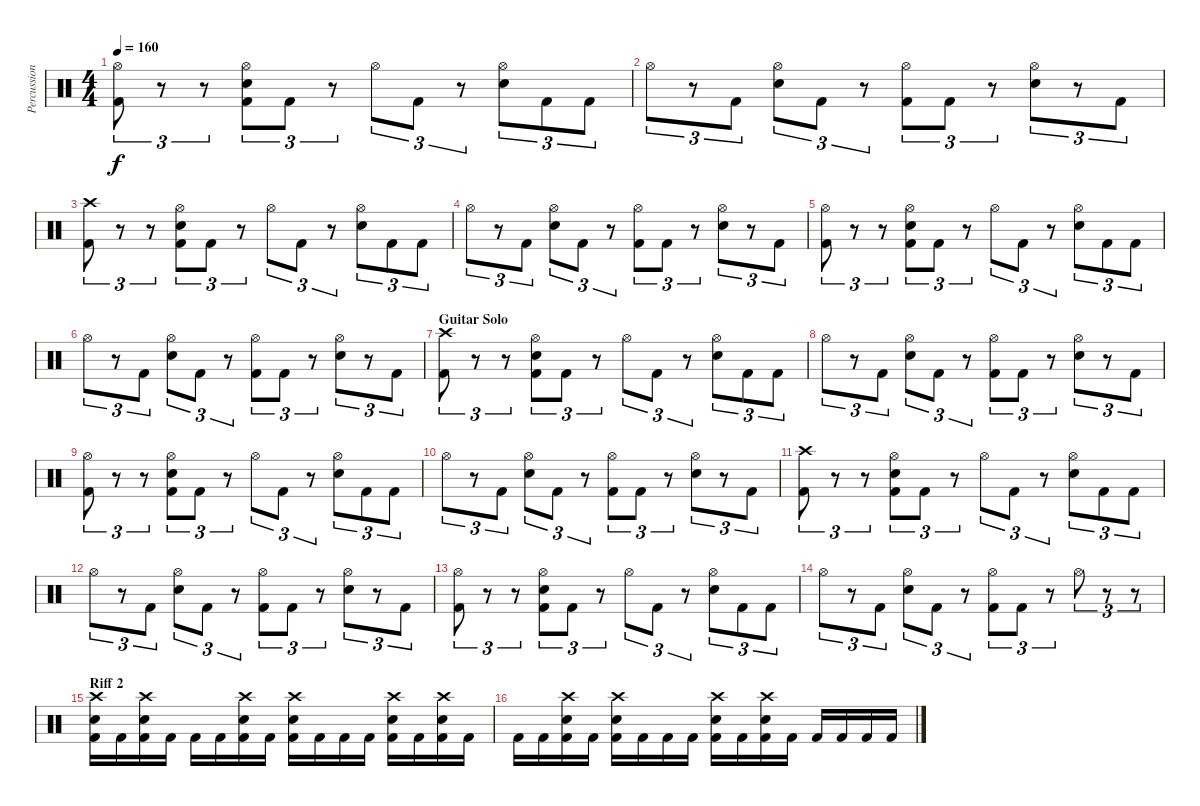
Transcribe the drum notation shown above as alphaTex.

\track ("Percussion" "Percussion") {instrument percussion}
\staff {score}
\articulation defaults
\ts (4 4)
\tempo 160
\clef neutral
\ks c
("Hi-Hat (open)" "Kick (hit) 2").8{tu (3 2) dy f} r.8{tu (3 2)} r.8{tu (3 2)} ("Hi-Hat (open)" "Electric Snare (hit)" "Kick (hit) 2").8{tu (3 2)} "Kick (hit) 2".8{tu (3 2)} r.8{tu (3 2)} "Hi-Hat (open)".8{tu (3 2)} "Kick (hit) 2".8{tu (3 2)} r.8{tu (3 2)} ("Hi-Hat (open)" "Electric Snare (hit)").8{tu (3 2)} "Kick (hit) 2".8{tu (3 2)} "Kick (hit) 2".8{tu (3 2)} |
"Hi-Hat (open)".8{tu (3 2)} r.8{tu (3 2)} "Kick (hit) 2".8{tu (3 2)} ("Hi-Hat (open)" "Electric Snare (hit)").8{tu (3 2)} "Kick (hit) 2".8{tu (3 2)} r.8{tu (3 2)} ("Hi-Hat (open)" "Kick (hit) 2").8{tu (3 2)} "Kick (hit) 2".8{tu (3 2)} r.8{tu (3 2)} ("Hi-Hat (open)" "Electric Snare (hit)").8{tu (3 2)} r.8{tu (3 2)} "Kick (hit) 2".8{tu (3 2)} |
("Crash high (hit)" "Kick (hit) 2").8{tu (3 2)} r.8{tu (3 2)} r.8{tu (3 2)} ("Hi-Hat (open)" "Electric Snare (hit)" "Kick (hit) 2").8{tu (3 2)} "Kick (hit) 2".8{tu (3 2)} r.8{tu (3 2)} "Hi-Hat (open)".8{tu (3 2)} "Kick (hit) 2".8{tu (3 2)} r.8{tu (3 2)} ("Hi-Hat (open)" "Electric Snare (hit)").8{tu (3 2)} "Kick (hit) 2".8{tu (3 2)} "Kick (hit) 2".8{tu (3 2)} |
"Hi-Hat (open)".8{tu (3 2)} r.8{tu (3 2)} "Kick (hit) 2".8{tu (3 2)} ("Hi-Hat (open)" "Electric Snare (hit)").8{tu (3 2)} "Kick (hit) 2".8{tu (3 2)} r.8{tu (3 2)} ("Hi-Hat (open)" "Kick (hit) 2").8{tu (3 2)} "Kick (hit) 2".8{tu (3 2)} r.8{tu (3 2)} ("Hi-Hat (open)" "Electric Snare (hit)").8{tu (3 2)} r.8{tu (3 2)} "Kick (hit) 2".8{tu (3 2)} |
("Hi-Hat (open)" "Kick (hit) 2").8{tu (3 2)} r.8{tu (3 2)} r.8{tu (3 2)} ("Hi-Hat (open)" "Electric Snare (hit)" "Kick (hit) 2").8{tu (3 2)} "Kick (hit) 2".8{tu (3 2)} r.8{tu (3 2)} "Hi-Hat (open)".8{tu (3 2)} "Kick (hit) 2".8{tu (3 2)} r.8{tu (3 2)} ("Hi-Hat (open)" "Electric Snare (hit)").8{tu (3 2)} "Kick (hit) 2".8{tu (3 2)} "Kick (hit) 2".8{tu (3 2)} |
"Hi-Hat (open)".8{tu (3 2)} r.8{tu (3 2)} "Kick (hit) 2".8{tu (3 2)} ("Hi-Hat (open)" "Electric Snare (hit)").8{tu (3 2)} "Kick (hit) 2".8{tu (3 2)} r.8{tu (3 2)} ("Hi-Hat (open)" "Kick (hit) 2").8{tu (3 2)} "Kick (hit) 2".8{tu (3 2)} r.8{tu (3 2)} ("Hi-Hat (open)" "Electric Snare (hit)").8{tu (3 2)} r.8{tu (3 2)} "Kick (hit) 2".8{tu (3 2)} |
\section ("" "Guitar Solo")
("Crash high (hit)" "Kick (hit) 2").8{tu (3 2)} r.8{tu (3 2)} r.8{tu (3 2)} ("Hi-Hat (open)" "Electric Snare (hit)" "Kick (hit) 2").8{tu (3 2)} "Kick (hit) 2".8{tu (3 2)} r.8{tu (3 2)} "Hi-Hat (open)".8{tu (3 2)} "Kick (hit) 2".8{tu (3 2)} r.8{tu (3 2)} ("Hi-Hat (open)" "Electric Snare (hit)").8{tu (3 2)} "Kick (hit) 2".8{tu (3 2)} "Kick (hit) 2".8{tu (3 2)} |
"Hi-Hat (open)".8{tu (3 2)} r.8{tu (3 2)} "Kick (hit) 2".8{tu (3 2)} ("Hi-Hat (open)" "Electric Snare (hit)").8{tu (3 2)} "Kick (hit) 2".8{tu (3 2)} r.8{tu (3 2)} ("Hi-Hat (open)" "Kick (hit) 2").8{tu (3 2)} "Kick (hit) 2".8{tu (3 2)} r.8{tu (3 2)} ("Hi-Hat (open)" "Electric Snare (hit)").8{tu (3 2)} r.8{tu (3 2)} "Kick (hit) 2".8{tu (3 2)} |
("Hi-Hat (open)" "Kick (hit) 2").8{tu (3 2)} r.8{tu (3 2)} r.8{tu (3 2)} ("Hi-Hat (open)" "Electric Snare (hit)" "Kick (hit) 2").8{tu (3 2)} "Kick (hit) 2".8{tu (3 2)} r.8{tu (3 2)} "Hi-Hat (open)".8{tu (3 2)} "Kick (hit) 2".8{tu (3 2)} r.8{tu (3 2)} ("Hi-Hat (open)" "Electric Snare (hit)").8{tu (3 2)} "Kick (hit) 2".8{tu (3 2)} "Kick (hit) 2".8{tu (3 2)} |
"Hi-Hat (open)".8{tu (3 2)} r.8{tu (3 2)} "Kick (hit) 2".8{tu (3 2)} ("Hi-Hat (open)" "Electric Snare (hit)").8{tu (3 2)} "Kick (hit) 2".8{tu (3 2)} r.8{tu (3 2)} ("Hi-Hat (open)" "Kick (hit) 2").8{tu (3 2)} "Kick (hit) 2".8{tu (3 2)} r.8{tu (3 2)} ("Hi-Hat (open)" "Electric Snare (hit)").8{tu (3 2)} r.8{tu (3 2)} "Kick (hit) 2".8{tu (3 2)} |
("Crash high (hit)" "Kick (hit) 2").8{tu (3 2)} r.8{tu (3 2)} r.8{tu (3 2)} ("Hi-Hat (open)" "Electric Snare (hit)" "Kick (hit) 2").8{tu (3 2)} "Kick (hit) 2".8{tu (3 2)} r.8{tu (3 2)} "Hi-Hat (open)".8{tu (3 2)} "Kick (hit) 2".8{tu (3 2)} r.8{tu (3 2)} ("Hi-Hat (open)" "Electric Snare (hit)").8{tu (3 2)} "Kick (hit) 2".8{tu (3 2)} "Kick (hit) 2".8{tu (3 2)} |
"Hi-Hat (open)".8{tu (3 2)} r.8{tu (3 2)} "Kick (hit) 2".8{tu (3 2)} ("Hi-Hat (open)" "Electric Snare (hit)").8{tu (3 2)} "Kick (hit) 2".8{tu (3 2)} r.8{tu (3 2)} ("Hi-Hat (open)" "Kick (hit) 2").8{tu (3 2)} "Kick (hit) 2".8{tu (3 2)} r.8{tu (3 2)} ("Hi-Hat (open)" "Electric Snare (hit)").8{tu (3 2)} r.8{tu (3 2)} "Kick (hit) 2".8{tu (3 2)} |
("Hi-Hat (open)" "Kick (hit) 2").8{tu (3 2)} r.8{tu (3 2)} r.8{tu (3 2)} ("Hi-Hat (open)" "Electric Snare (hit)" "Kick (hit) 2").8{tu (3 2)} "Kick (hit) 2".8{tu (3 2)} r.8{tu (3 2)} "Hi-Hat (open)".8{tu (3 2)} "Kick (hit) 2".8{tu (3 2)} r.8{tu (3 2)} ("Hi-Hat (open)" "Electric Snare (hit)").8{tu (3 2)} "Kick (hit) 2".8{tu (3 2)} "Kick (hit) 2".8{tu (3 2)} |
"Hi-Hat (open)".8{tu (3 2)} r.8{tu (3 2)} "Kick (hit) 2".8{tu (3 2)} ("Hi-Hat (open)" "Electric Snare (hit)").8{tu (3 2)} "Kick (hit) 2".8{tu (3 2)} r.8{tu (3 2)} ("Hi-Hat (open)" "Kick (hit) 2").8{tu (3 2)} "Kick (hit) 2".8{tu (3 2)} r.8{tu (3 2)} "Hi-Hat (open)".8{tu (3 2)} r.8{tu (3 2)} r.8{tu (3 2)} |
\section ("" "Riff 2")
("Crash high (hit)" "Electric Snare (hit)" "Kick (hit) 2").16 "Kick (hit) 2".16 ("Crash high (hit)" "Electric Snare (hit)" "Kick (hit) 2").16 "Kick (hit) 2".16 "Kick (hit) 2".16 "Kick (hit) 2".16 ("Crash high (hit)" "Electric Snare (hit)" "Kick (hit) 2").16 "Kick (hit) 2".16 ("Crash high (hit)" "Electric Snare (hit)" "Kick (hit) 2").16 "Kick (hit) 2".16 "Kick (hit) 2".16 "Kick (hit) 2".16 ("Crash high (hit)" "Electric Snare (hit)" "Kick (hit) 2").16 "Kick (hit) 2".16 ("Crash high (hit)" "Electric Snare (hit)" "Kick (hit) 2").16 "Kick (hit) 2".16 |
"Kick (hit) 2".16 "Kick (hit) 2".16 ("Crash high (hit)" "Electric Snare (hit)" "Kick (hit) 2").16 "Kick (hit) 2".16 ("Crash high (hit)" "Electric Snare (hit)" "Kick (hit) 2").16 "Kick (hit) 2".16 "Kick (hit) 2".16 "Kick (hit) 2".16 ("Crash high (hit)" "Electric Snare (hit)" "Kick (hit) 2").16 "Kick (hit) 2".16 ("Crash high (hit)" "Electric Snare (hit)" "Kick (hit) 2").16 "Kick (hit) 2".16 "Kick (hit) 2".16 "Kick (hit) 2".16 "Kick (hit) 2".16 "Kick (hit) 2".16
